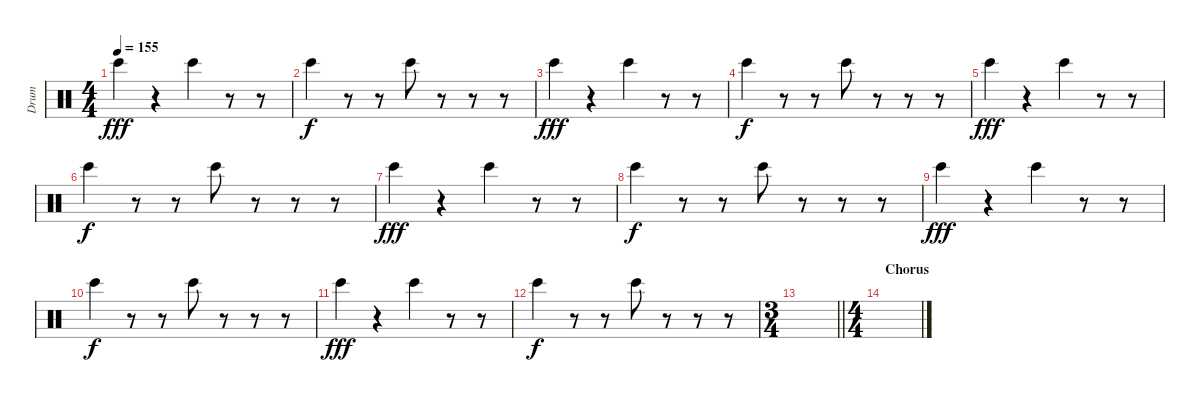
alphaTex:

\track ("Drum" "Drum") {instrument percussion}
\staff {score}
\articulation defaults
\ts (4 4)
\tempo 155
\clef neutral
\ks c "Bongo High (hit)".4{dy fff}
r.4 "Bongo High (hit)".4 r.8 r.8 |
"Bongo High (hit)".4{dy f} r.8 r.8 "Bongo High (hit)".8 r.8 r.8 r.8 |
"Bongo High (hit)".4{dy fff} r.4 "Bongo High (hit)".4 r.8 r.8 |
"Bongo High (hit)".4{dy f} r.8 r.8 "Bongo High (hit)".8 r.8 r.8 r.8 |
"Bongo High (hit)".4{dy fff} r.4 "Bongo High (hit)".4 r.8 r.8 |
"Bongo High (hit)".4{dy f} r.8 r.8 "Bongo High (hit)".8 r.8 r.8 r.8 |
"Bongo High (hit)".4{dy fff} r.4 "Bongo High (hit)".4 r.8 r.8 |
"Bongo High (hit)".4{dy f} r.8 r.8 "Bongo High (hit)".8 r.8 r.8 r.8 |
"Bongo High (hit)".4{dy fff} r.4 "Bongo High (hit)".4 r.8 r.8 |
"Bongo High (hit)".4{dy f} r.8 r.8 "Bongo High (hit)".8 r.8 r.8 r.8 |
"Bongo High (hit)".4{dy fff} r.4 "Bongo High (hit)".4 r.8 r.8 |
"Bongo High (hit)".4{dy f} r.8 r.8 "Bongo High (hit)".8 r.8 r.8 r.8 |
\ts (3 4)
\barLineRight lightlight
|
\ts (4 4)
\section ("" "Chorus")
